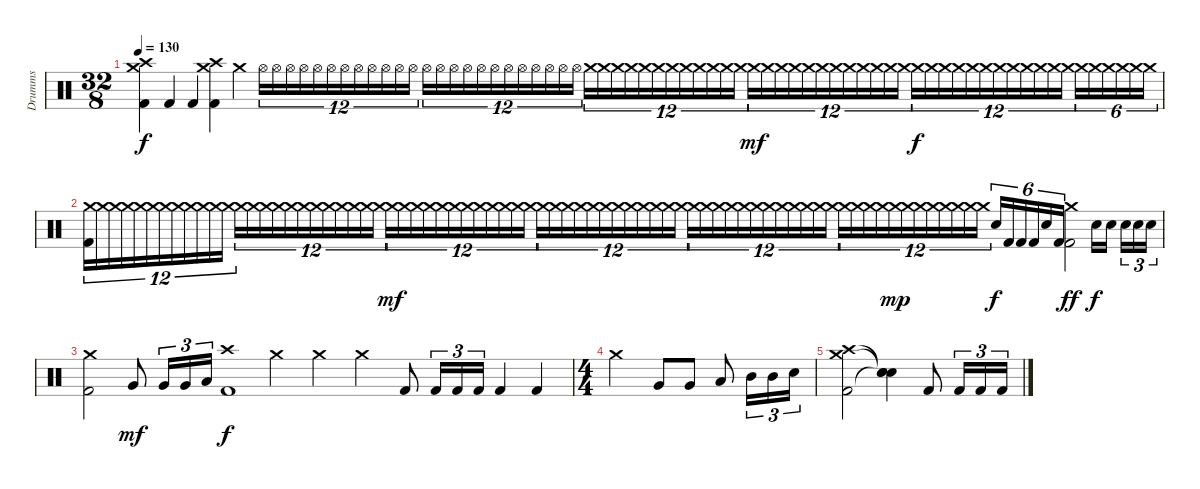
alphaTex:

\track ("Drumms" "Drumms") {instrument percussion}
\staff {score}
\articulation defaults
\ts (32 8)
\tempo 130
\clef neutral
\ks c
("Crash medium (hit)" "Crash high (hit)" "Kick (hit) 2").4{dy f} "Kick (hit) 2".4 "Kick (hit) 2".4 ("Crash medium (hit)" "Crash high (hit)" "Kick (hit) 2").4 "Crash medium (hit)".4 "Hi-Hat (open)".16{tu (12 8)} "Hi-Hat (open)".16{tu (12 8)} "Hi-Hat (open)".16{tu (12 8)} "Hi-Hat (open)".16{tu (12 8)} "Hi-Hat (open)".16{tu (12 8)} "Hi-Hat (open)".16{tu (12 8)} "Hi-Hat (open)".16{tu (12 8)} "Hi-Hat (open)".16{tu (12 8)} "Hi-Hat (open)".16{tu (12 8)} "Hi-Hat (open)".16{tu (12 8)} "Hi-Hat (open)".16{tu (12 8)} "Hi-Hat (open)".16{tu (12 8)} "Hi-Hat (open)".16{tu (12 8)} "Hi-Hat (open)".16{tu (12 8)} "Hi-Hat (open)".16{tu (12 8)} "Hi-Hat (open)".16{tu (12 8)} "Hi-Hat (open)".16{tu (12 8)} "Hi-Hat (open)".16{tu (12 8)} "Hi-Hat (open)".16{tu (12 8)} "Hi-Hat (open)".16{tu (12 8)} "Hi-Hat (open)".16{tu (12 8)} "Hi-Hat (open)".16{tu (12 8)} "Hi-Hat (open)".16{tu (12 8)} "Hi-Hat (open)".16{tu (12 8)} "Crash medium (hit)".16{tu (12 8)} "Crash medium (hit)".16{tu (12 8)} "Crash medium (hit)".16{tu (12 8)} "Crash medium (hit)".16{tu (12 8)} "Crash medium (hit)".16{tu (12 8)} "Crash medium (hit)".16{tu (12 8)} "Crash medium (hit)".16{tu (12 8)} "Crash medium (hit)".16{tu (12 8)} "Crash medium (hit)".16{tu (12 8)} "Crash medium (hit)".16{tu (12 8)} "Crash medium (hit)".16{tu (12 8)} "Crash medium (hit)".16{tu (12 8)} "Crash medium (hit)".16{tu (12 8) dy mf} "Crash medium (hit)".16{tu (12 8)} "Crash medium (hit)".16{tu (12 8)} "Crash medium (hit)".16{tu (12 8)} "Crash medium (hit)".16{tu (12 8)} "Crash medium (hit)".16{tu (12 8)} "Crash medium (hit)".16{tu (12 8)} "Crash medium (hit)".16{tu (12 8)} "Crash medium (hit)".16{tu (12 8)} "Crash medium (hit)".16{tu (12 8)} "Crash medium (hit)".16{tu (12 8)} "Crash medium (hit)".16{tu (12 8)} "Crash medium (hit)".16{tu (12 8) dy f} "Crash medium (hit)".16{tu (12 8)} "Crash medium (hit)".16{tu (12 8)} "Crash medium (hit)".16{tu (12 8)} "Crash medium (hit)".16{tu (12 8)} "Crash medium (hit)".16{tu (12 8)} "Crash medium (hit)".16{tu (12 8)} "Crash medium (hit)".16{tu (12 8)} "Crash medium (hit)".16{tu (12 8)} "Crash medium (hit)".16{tu (12 8)} "Crash medium (hit)".16{tu (12 8)} "Crash medium (hit)".16{tu (12 8)} "Crash medium (hit)".16{tu (6 4)} "Crash medium (hit)".16{tu (6 4)} "Crash medium (hit)".16{tu (6 4)} "Crash medium (hit)".16{tu (6 4)} "Crash medium (hit)".16{tu (6 4)} "Crash medium (hit)".16{tu (6 4)} |
("Crash medium (hit)" "Kick (hit) 2").16{tu (12 8)} "Crash medium (hit)".16{tu (12 8)} "Crash medium (hit)".16{tu (12 8)} "Crash medium (hit)".16{tu (12 8)} "Crash medium (hit)".16{tu (12 8)} "Crash medium (hit)".16{tu (12 8)} "Crash medium (hit)".16{tu (12 8)} "Crash medium (hit)".16{tu (12 8)} "Crash medium (hit)".16{tu (12 8)} "Crash medium (hit)".16{tu (12 8)} "Crash medium (hit)".16{tu (12 8)} "Crash medium (hit)".16{tu (12 8)} "Crash medium (hit)".16{tu (12 8)} "Crash medium (hit)".16{tu (12 8)} "Crash medium (hit)".16{tu (12 8)} "Crash medium (hit)".16{tu (12 8)} "Crash medium (hit)".16{tu (12 8)} "Crash medium (hit)".16{tu (12 8)} "Crash medium (hit)".16{tu (12 8)} "Crash medium (hit)".16{tu (12 8)} "Crash medium (hit)".16{tu (12 8)} "Crash medium (hit)".16{tu (12 8)} "Crash medium (hit)".16{tu (12 8)} "Crash medium (hit)".16{tu (12 8)} "Crash medium (hit)".16{tu (12 8) dy mf} "Crash medium (hit)".16{tu (12 8)} "Crash medium (hit)".16{tu (12 8)} "Crash medium (hit)".16{tu (12 8)} "Crash medium (hit)".16{tu (12 8)} "Crash medium (hit)".16{tu (12 8)} "Crash medium (hit)".16{tu (12 8)} "Crash medium (hit)".16{tu (12 8)} "Crash medium (hit)".16{tu (12 8)} "Crash medium (hit)".16{tu (12 8)} "Crash medium (hit)".16{tu (12 8)} "Crash medium (hit)".16{tu (12 8)} "Crash medium (hit)".16{tu (12 8)} "Crash medium (hit)".16{tu (12 8)} "Crash medium (hit)".16{tu (12 8)} "Crash medium (hit)".16{tu (12 8)} "Crash medium (hit)".16{tu (12 8)} "Crash medium (hit)".16{tu (12 8)} "Crash medium (hit)".16{tu (12 8)} "Crash medium (hit)".16{tu (12 8)} "Crash medium (hit)".16{tu (12 8)} "Crash medium (hit)".16{tu (12 8)} "Crash medium (hit)".16{tu (12 8)} "Crash medium (hit)".16{tu (12 8)} "Crash medium (hit)".16{tu (12 8)} "Crash medium (hit)".16{tu (12 8)} "Crash medium (hit)".16{tu (12 8)} "Crash medium (hit)".16{tu (12 8)} "Crash medium (hit)".16{tu (12 8)} "Crash medium (hit)".16{tu (12 8)} "Crash medium (hit)".16{tu (12 8)} "Crash medium (hit)".16{tu (12 8)} "Crash medium (hit)".16{tu (12 8)} "Crash medium (hit)".16{tu (12 8)} "Crash medium (hit)".16{tu (12 8)} "Crash medium (hit)".16{tu (12 8)} "Crash medium (hit)".16{tu (12 8)} "Crash medium (hit)".16{tu (12 8)} "Crash medium (hit)".16{tu (12 8)} "Crash medium (hit)".16{tu (12 8)} "Crash medium (hit)".16{tu (12 8) dy mp} "Crash medium (hit)".16{tu (12 8)} "Crash medium (hit)".16{tu (12 8)} "Crash medium (hit)".16{tu (12 8)} "Crash medium (hit)".16{tu (12 8)} "Crash medium (hit)".16{tu (12 8)} "Crash medium (hit)".16{tu (12 8)} "Crash medium (hit)".16{tu (12 8)} "Electric Snare (hit)".16{tu (6 4) dy f} "Kick (hit) 2".16{tu (6 4)} "Kick (hit) 2".16{tu (6 4)} "Kick (hit) 2".16{tu (6 4)} "Electric Snare (hit)".16{tu (6 4)} "Kick (hit) 2".16{tu (6 4)} ("Crash medium (hit)" "Kick (hit) 2").2{dy ff} "Electric Snare (hit)".16{dy f} "Electric Snare (hit)".16 "Electric Snare (hit)".16{tu (3 2)} "Electric Snare (hit)".16{tu (3 2)} "Electric Snare (hit)".16{tu (3 2)} |
("Crash medium (hit)" "Kick (hit) 2").2 "Very Low Tom (hit)".8{dy mf} "Very Low Tom (hit)".16{tu (3 2)} "Very Low Tom (hit)".16{tu (3 2)} "Low Tom (hit)".16{tu (3 2)} ("Crash high (hit)" "Kick (hit) 2").1{dy f} "Crash medium (hit)".2 "Crash medium (hit)".2 "Crash medium (hit)".2 "Kick (hit) 2".8 "Kick (hit) 2".16{tu (3 2)} "Kick (hit) 2".16{tu (3 2)} "Kick (hit) 2".16{tu (3 2)} "Kick (hit) 2".4 "Kick (hit) 2".4 |
\ts (4 4)
"Crash medium (hit)".2 "Very Low Tom (hit)".8 "Very Low Tom (hit)".8 "Low Tom (hit)".8 "Mid Tom (hit)".16{tu (3 2)} "Mid Tom (hit)".16{tu (3 2)} "Electric Snare (hit)".16{tu (3 2)} |
("Crash medium (hit)" "Crash high (hit)" "Kick (hit) 2").2 ("Snare (hit)"{t} "Snare (hit)"{t} "Snare (hit)"{t}).4 "Kick (hit) 2".8 "Kick (hit) 2".16{tu (3 2)} "Kick (hit) 2".16{tu (3 2)} "Kick (hit) 2".16{tu (3 2)}
